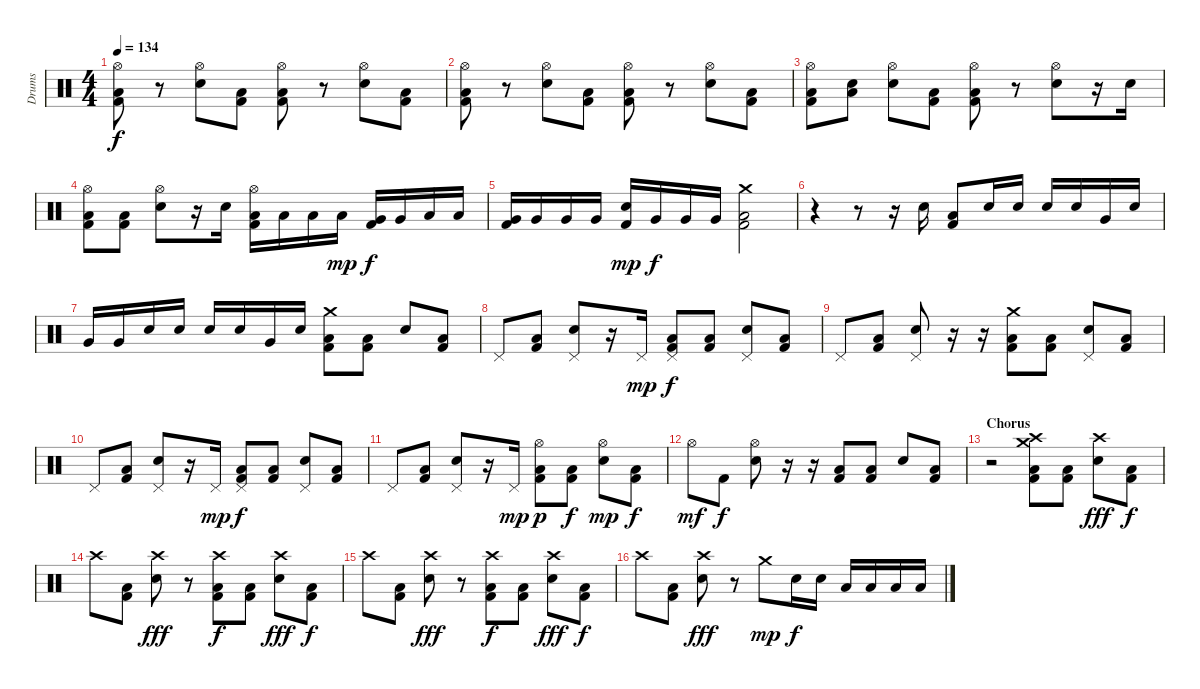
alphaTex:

\track ("Drums" "Drums") {instrument percussion}
\staff {score}
\articulation defaults
\ts (4 4)
\tempo 134
\clef neutral
\ks c
("Hi-Hat (open)" "Kick (hit) 2" "Low Floor Tom (hit)").8{dy f} r.8 ("Hi-Hat (open)" "Snare (hit) 2").8 ("Kick (hit) 2" "Low Floor Tom (hit)").8 ("Hi-Hat (open)" "Kick (hit) 2" "Low Floor Tom (hit)").8 r.8 ("Hi-Hat (open)" "Snare (hit) 2").8 ("Kick (hit) 2" "Low Floor Tom (hit)").8 |
("Hi-Hat (open)" "Kick (hit) 2" "Low Floor Tom (hit)").8 r.8 ("Hi-Hat (open)" "Snare (hit) 2").8 ("Kick (hit) 2" "Low Floor Tom (hit)").8 ("Hi-Hat (open)" "Kick (hit) 2" "Low Floor Tom (hit)").8 r.8 ("Hi-Hat (open)" "Snare (hit) 2").8 ("Kick (hit) 2" "Low Floor Tom (hit)").8 |
("Hi-Hat (open)" "Kick (hit) 2" "Low Floor Tom (hit)").8 ("Snare (hit) 2" "Low Floor Tom (hit)").8 ("Hi-Hat (open)" "Snare (hit) 2").8 ("Kick (hit) 2" "Low Floor Tom (hit)").8 ("Hi-Hat (open)" "Kick (hit) 2" "Low Floor Tom (hit)").8 r.8 ("Hi-Hat (open)" "Snare (hit) 2").8 r.16 "Snare (hit) 2".16 |
("Hi-Hat (open)" "Kick (hit) 2" "Low Floor Tom (hit)").8 ("Kick (hit) 2" "Low Floor Tom (hit)").8 ("Hi-Hat (open)" "Snare (hit) 2").8 r.16 "Snare (hit) 2".16 ("Hi-Hat (open)" "Low Tom (hit)" "Kick (hit) 2").16 "Low Tom (hit)".16 "Low Floor Tom (hit)".16 "Low Floor Tom (hit)".16{dy mp} ("Very Low Tom (hit)" "Kick (hit) 2").16{dy f} "Very Low Tom (hit)".16 "Low Floor Tom (hit)".16 "Low Floor Tom (hit)".16 |
("Very Low Tom (hit)" "Kick (hit) 2").16 "Very Low Tom (hit)".16 "Very Low Tom (hit)".16 "Very Low Tom (hit)".16 ("Snare (hit) 2" "Kick (hit) 2").16{dy mp} "Very Low Tom (hit)".16{dy f} "Very Low Tom (hit)".16 "Very Low Tom (hit)".16 ("Crash medium (hit)" "Kick (hit) 2" "Low Floor Tom (hit)").2 |
r.4 r.8 r.16 "Snare (hit) 2".16 ("Kick (hit) 2" "Low Floor Tom (hit)").8 "Snare (hit) 2".16 "Snare (hit) 2".16 "Snare (hit) 2".16 "Snare (hit) 2".16 "Very Low Tom (hit)".16 "Snare (hit) 2".16 |
"Very Low Tom (hit)".16 "Very Low Tom (hit)".16 "Snare (hit) 2".16 "Snare (hit) 2".16 "Snare (hit) 2".16 "Snare (hit) 2".16 "Very Low Tom (hit)".16 "Snare (hit) 2".16 ("Crash medium (hit)" "Kick (hit) 2" "Low Floor Tom (hit)").8 ("Kick (hit) 2" "Low Floor Tom (hit)").8 "Snare (hit) 2".8 ("Kick (hit) 2" "Low Floor Tom (hit)").8 |
"Pedal Hi-Hat (hit)".8 ("Kick (hit) 2" "Low Floor Tom (hit)").8 ("Pedal Hi-Hat (hit)" "Snare (hit) 2").8 r.16 "Pedal Hi-Hat (hit)".16{dy mp} ("Pedal Hi-Hat (hit)" "Kick (hit) 2" "Low Floor Tom (hit)").8{dy f} ("Kick (hit) 2" "Low Floor Tom (hit)").8 ("Pedal Hi-Hat (hit)" "Snare (hit) 2").8 ("Kick (hit) 2" "Low Floor Tom (hit)").8 |
"Pedal Hi-Hat (hit)".8 ("Kick (hit) 2" "Low Floor Tom (hit)").8 ("Pedal Hi-Hat (hit)" "Snare (hit) 2").8 r.16 r.16 ("Crash medium (hit)" "Kick (hit) 2" "Low Floor Tom (hit)").8 ("Kick (hit) 2" "Low Floor Tom (hit)").8 ("Pedal Hi-Hat (hit)" "Snare (hit) 2").8 ("Kick (hit) 2" "Low Floor Tom (hit)").8 |
"Pedal Hi-Hat (hit)".8 ("Kick (hit) 2" "Low Floor Tom (hit)").8 ("Pedal Hi-Hat (hit)" "Snare (hit) 2").8 r.16 "Pedal Hi-Hat (hit)".16{dy mp} ("Pedal Hi-Hat (hit)" "Kick (hit) 2" "Low Floor Tom (hit)").8{dy f} ("Kick (hit) 2" "Low Floor Tom (hit)").8 ("Pedal Hi-Hat (hit)" "Snare (hit) 2").8 ("Kick (hit) 2" "Low Floor Tom (hit)").8 |
"Pedal Hi-Hat (hit)".8 ("Kick (hit) 2" "Low Floor Tom (hit)").8 ("Pedal Hi-Hat (hit)" "Snare (hit) 2").8 r.16 "Pedal Hi-Hat (hit)".16{dy mp} ("Hi-Hat (open)" "Kick (hit) 2" "Low Floor Tom (hit)").8{dy p} ("Kick (hit) 2" "Low Floor Tom (hit)").8{dy f} ("Hi-Hat (open)" "Snare (hit) 2").8{dy mp} ("Kick (hit) 2" "Low Floor Tom (hit)").8{dy f} |
"Hi-Hat (open)".8{dy mf} "Kick (hit) 2".8{dy f} ("Hi-Hat (open)" "Snare (hit) 2").8 r.16 r.16 ("Kick (hit) 2" "Low Floor Tom (hit)").8 ("Kick (hit) 2" "Low Floor Tom (hit)").8 "Snare (hit) 2".8 ("Kick (hit) 2" "Low Floor Tom (hit)").8 |
\section ("" "Chorus")
r.2 ("Crash medium (hit)" "Crash high (hit)" "Kick (hit) 2" "Low Floor Tom (hit)").8 ("Kick (hit) 2" "Low Floor Tom (hit)").8 ("Crash high (hit)" "Snare (hit) 2").8{dy fff} ("Kick (hit) 2" "Low Floor Tom (hit)").8{dy f} |
"Crash high (hit)".8 ("Kick (hit) 2" "Low Floor Tom (hit)").8 ("Crash high (hit)" "Snare (hit) 2").8{dy fff} r.8 ("Crash high (hit)" "Kick (hit) 2" "Low Floor Tom (hit)").8{dy f} ("Kick (hit) 2" "Low Floor Tom (hit)").8 ("Crash high (hit)" "Snare (hit) 2").8{dy fff} ("Kick (hit) 2" "Low Floor Tom (hit)").8{dy f} |
"Crash high (hit)".8 ("Kick (hit) 2" "Low Floor Tom (hit)").8 ("Crash high (hit)" "Snare (hit) 2").8{dy fff} r.8 ("Crash high (hit)" "Kick (hit) 2" "Low Floor Tom (hit)").8{dy f} ("Kick (hit) 2" "Low Floor Tom (hit)").8 ("Crash high (hit)" "Snare (hit) 2").8{dy fff} ("Kick (hit) 2" "Low Floor Tom (hit)").8{dy f} |
"Crash high (hit)".8 ("Kick (hit) 2" "Low Floor Tom (hit)").8 ("Crash high (hit)" "Snare (hit) 2").8{dy fff} r.8 "Crash medium (hit)".8{dy mp} "Snare (hit) 2".16{dy f} "Snare (hit) 2".16 "Low Floor Tom (hit)".16 "Low Floor Tom (hit)".16 "Low Floor Tom (hit)".16 "Low Floor Tom (hit)".16
